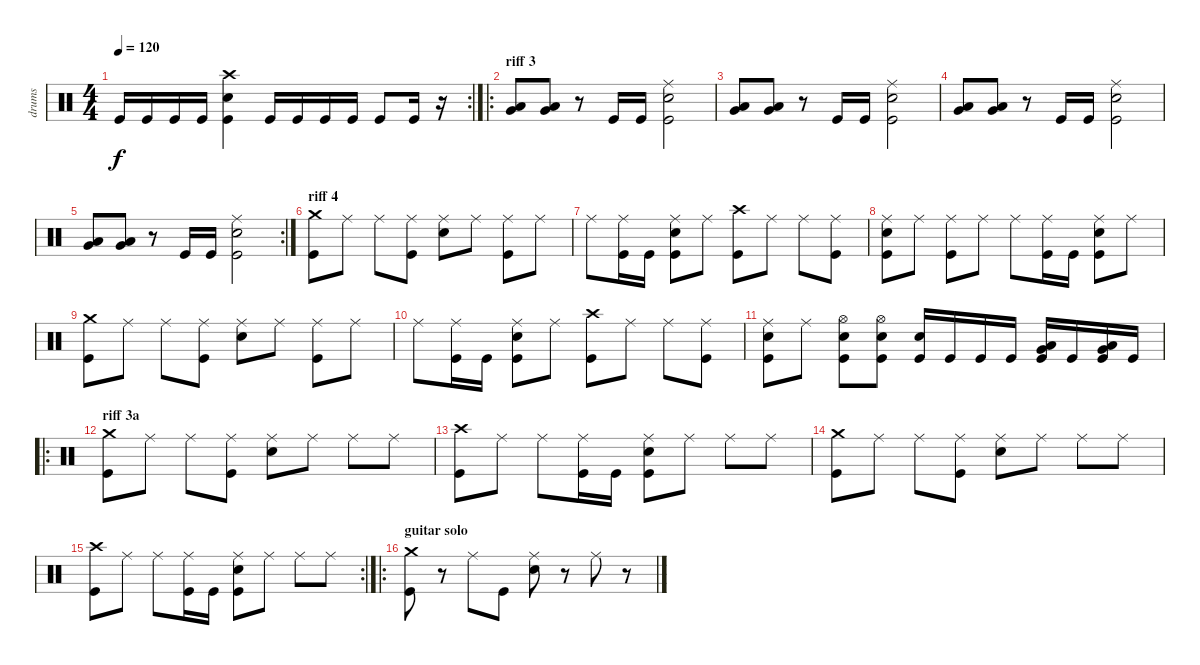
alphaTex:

\track ("drums" "drums") {instrument percussion}
\staff {score}
\articulation defaults
\rc 2
\ts (4 4)
\tempo 120
\clef neutral
\ks c "Kick (hit)".16{dy f} "Kick (hit)".16 "Kick (hit)".16 "Kick (hit)".16
("Kick (hit)" "Snare (hit) 2" "Crash high (hit)").4 "Kick (hit)".16 "Kick (hit)".16 "Kick (hit)".16 "Kick (hit)".16 "Kick (hit)".8 "Kick (hit)".16 r.16 |
\ro
\section ("" "riff 3")
("Low Tom (hit)" "Very Low Tom (hit)").8 ("Low Tom (hit)" "Very Low Tom (hit)").8 r.8 "Kick (hit)".16 "Kick (hit)".16 ("Kick (hit)" "Snare (hit) 2" "Ride (middle)").2 |
("Low Floor Tom (hit)" "Very Low Tom (hit)").8 ("Low Floor Tom (hit)" "Very Low Tom (hit)").8 r.8 "Kick (hit)".16 "Kick (hit)".16 ("Kick (hit)" "Snare (hit) 2" "Ride (middle)").2 |
("Low Tom (hit)" "Very Low Tom (hit)").8 ("Low Tom (hit)" "Very Low Tom (hit)").8 r.8 "Kick (hit)".16 "Kick (hit)".16 ("Kick (hit)" "Snare (hit) 2" "Ride (middle)").2 |
\rc 2
("Low Floor Tom (hit)" "Very Low Tom (hit)").8 ("Low Floor Tom (hit)" "Very Low Tom (hit)").8 r.8 "Kick (hit)".16 "Kick (hit)".16 ("Kick (hit)" "Snare (hit) 2" "Ride (middle)").2 |
\section ("" "riff 4")
("Kick (hit)" "Crash medium (hit)").8 "Ride (middle)".8 "Ride (middle)".8 ("Kick (hit)" "Ride (middle)").8 ("Snare (hit) 2" "Ride (middle)").8 "Ride (middle)".8 ("Kick (hit)" "Ride (middle)").8 "Ride (middle)".8 |
"Ride (middle)".8 ("Kick (hit)" "Ride (middle)").16 "Kick (hit)".16 ("Kick (hit)" "Snare (hit) 2" "Ride (middle)").8 "Ride (middle)".8 ("Kick (hit)" "Crash high (hit)").8 "Ride (middle)".8 "Ride (middle)".8 ("Kick (hit)" "Ride (middle)").8 |
("Kick (hit)" "Snare (hit) 2" "Ride (middle)").8 "Ride (middle)".8 ("Kick (hit)" "Ride (middle)").8 "Ride (middle)".8 "Ride (middle)".8 ("Kick (hit)" "Ride (middle)").16 "Kick (hit)".16 ("Kick (hit)" "Snare (hit) 2" "Ride (middle)").8 "Ride (middle)".8 |
("Kick (hit)" "Crash medium (hit)").8 "Ride (middle)".8 "Ride (middle)".8 ("Kick (hit)" "Ride (middle)").8 ("Snare (hit) 2" "Ride (middle)").8 "Ride (middle)".8 ("Kick (hit)" "Ride (middle)").8 "Ride (middle)".8 |
"Ride (middle)".8 ("Kick (hit)" "Ride (middle)").16 "Kick (hit)".16 ("Kick (hit)" "Snare (hit) 2" "Ride (middle)").8 "Ride (middle)".8 ("Kick (hit)" "Crash high (hit)").8 "Ride (middle)".8 "Ride (middle)".8 ("Kick (hit)" "Ride (middle)").8 |
("Kick (hit)" "Snare (hit) 2" "Ride (middle)").8 "Ride (middle)".8 ("Kick (hit)" "Snare (hit) 2" "Hi-Hat (open)").8 ("Kick (hit)" "Snare (hit) 2" "Hi-Hat (open)").8 ("Kick (hit)" "Snare (hit) 2").16 "Kick (hit)".16 "Kick (hit)".16 "Kick (hit)".16 ("Kick (hit)" "Low Tom (hit)" "Very Low Tom (hit)").16 "Kick (hit)".16 ("Kick (hit)" "Low Tom (hit)" "Very Low Tom (hit)").16 "Kick (hit)".16 |
\ro
\section ("" "riff 3a")
("Kick (hit)" "Crash medium (hit)").8 "Ride (middle)".8 "Ride (middle)".8 ("Kick (hit)" "Ride (middle)").8 ("Snare (hit) 2" "Ride (middle)").8 "Ride (middle)".8 "Ride (middle)".8 "Ride (middle)".8 |
("Kick (hit)" "Crash high (hit)").8 "Ride (middle)".8 "Ride (middle)".8 ("Kick (hit)" "Ride (middle)").16 "Kick (hit)".16 ("Kick (hit)" "Snare (hit) 2" "Ride (middle)").8 "Ride (middle)".8 "Ride (middle)".8 "Ride (middle)".8 |
("Kick (hit)" "Crash medium (hit)").8 "Ride (middle)".8 "Ride (middle)".8 ("Kick (hit)" "Ride (middle)").8 ("Snare (hit) 2" "Ride (middle)").8 "Ride (middle)".8 "Ride (middle)".8 "Ride (middle)".8 |
\rc 2
("Kick (hit)" "Crash high (hit)").8 "Ride (middle)".8 "Ride (middle)".8 ("Kick (hit)" "Ride (middle)").16 "Kick (hit)".16 ("Kick (hit)" "Snare (hit) 2" "Ride (middle)").8 "Ride (middle)".8 "Ride (middle)".8 "Ride (middle)".8 |
\ro
\section ("" "guitar solo")
("Kick (hit)" "Crash medium (hit)").8 r.8 "Ride (middle)".8 "Kick (hit)".8 ("Snare (hit) 2" "Ride (middle)").8 r.8 "Ride (middle)".8 r.8
